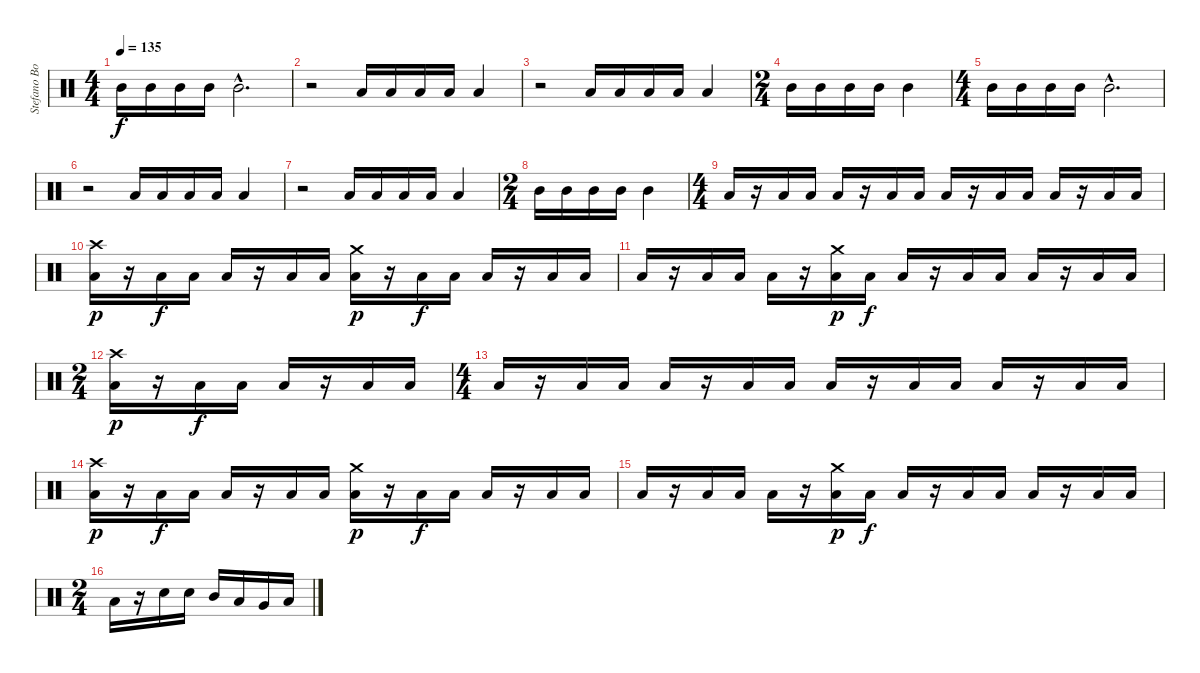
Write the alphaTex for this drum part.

\track ("Stefano Bonini" "Stefano Bo") {instrument percussion}
\staff {score}
\articulation defaults
\ts (4 4)
\tempo 135
\clef neutral
\ks c "Mid Tom (hit)".16{dy f} "Mid Tom (hit)".16 "Mid Tom (hit)".16 "Mid Tom (hit)".16 "Mid Tom (hit)"{hac}.2{d}
|
r.2 "Low Tom (hit)".16 "Low Tom (hit)".16 "Low Tom (hit)".16 "Low Tom (hit)".16 "Low Tom (hit)".4 |
r.2 "Low Tom (hit)".16 "Low Tom (hit)".16 "Low Tom (hit)".16 "Low Tom (hit)".16 "Low Tom (hit)".4 |
\ts (2 4)
"Mid Tom (hit)".16 "Mid Tom (hit)".16 "Mid Tom (hit)".16 "Mid Tom (hit)".16 "Mid Tom (hit)".4 |
\ts (4 4)
"Mid Tom (hit)".16 "Mid Tom (hit)".16 "Mid Tom (hit)".16 "Mid Tom (hit)".16 "Mid Tom (hit)"{hac}.2{d} |
r.2 "Low Tom (hit)".16 "Low Tom (hit)".16 "Low Tom (hit)".16 "Low Tom (hit)".16 "Low Tom (hit)".4 |
r.2 "Low Tom (hit)".16 "Low Tom (hit)".16 "Low Tom (hit)".16 "Low Tom (hit)".16 "Low Tom (hit)".4 |
\ts (2 4)
"Mid Tom (hit)".16 "Mid Tom (hit)".16 "Mid Tom (hit)".16 "Mid Tom (hit)".16 "Mid Tom (hit)".4 |
\ts (4 4)
"Low Tom (hit)".16 r.16 "Low Tom (hit)".16 "Low Tom (hit)".16 "Low Tom (hit)".16 r.16 "Low Tom (hit)".16 "Low Tom (hit)".16 "Low Tom (hit)".16 r.16 "Low Tom (hit)".16 "Low Tom (hit)".16 "Low Tom (hit)".16 r.16 "Low Tom (hit)".16 "Low Tom (hit)".16 |
("Crash high (hit)" "Low Tom (hit)").16{dy p} r.16 "Low Tom (hit)".16{dy f} "Low Tom (hit)".16 "Low Tom (hit)".16 r.16 "Low Tom (hit)".16 "Low Tom (hit)".16 ("Crash medium (hit)" "Low Tom (hit)").16{dy p} r.16 "Low Tom (hit)".16{dy f} "Low Tom (hit)".16 "Low Tom (hit)".16 r.16 "Low Tom (hit)".16 "Low Tom (hit)".16 |
"Low Tom (hit)".16 r.16 "Low Tom (hit)".16 "Low Tom (hit)".16 "Low Tom (hit)".16 r.16 ("Crash medium (hit)" "Low Tom (hit)").16{dy p} "Low Tom (hit)".16{dy f} "Low Tom (hit)".16 r.16 "Low Tom (hit)".16 "Low Tom (hit)".16 "Low Tom (hit)".16 r.16 "Low Tom (hit)".16 "Low Tom (hit)".16 |
\ts (2 4)
("Crash high (hit)" "Low Tom (hit)").16{dy p} r.16 "Low Tom (hit)".16{dy f} "Low Tom (hit)".16 "Low Tom (hit)".16 r.16 "Low Tom (hit)".16 "Low Tom (hit)".16 |
\ts (4 4)
"Low Tom (hit)".16 r.16 "Low Tom (hit)".16 "Low Tom (hit)".16 "Low Tom (hit)".16 r.16 "Low Tom (hit)".16 "Low Tom (hit)".16 "Low Tom (hit)".16 r.16 "Low Tom (hit)".16 "Low Tom (hit)".16 "Low Tom (hit)".16 r.16 "Low Tom (hit)".16 "Low Tom (hit)".16 |
("Crash high (hit)" "Low Tom (hit)").16{dy p} r.16 "Low Tom (hit)".16{dy f} "Low Tom (hit)".16 "Low Tom (hit)".16 r.16 "Low Tom (hit)".16 "Low Tom (hit)".16 ("Crash medium (hit)" "Low Tom (hit)").16{dy p} r.16 "Low Tom (hit)".16{dy f} "Low Tom (hit)".16 "Low Tom (hit)".16 r.16 "Low Tom (hit)".16 "Low Tom (hit)".16 |
"Low Tom (hit)".16 r.16 "Low Tom (hit)".16 "Low Tom (hit)".16 "Low Tom (hit)".16 r.16 ("Crash medium (hit)" "Low Tom (hit)").16{dy p} "Low Tom (hit)".16{dy f} "Low Tom (hit)".16 r.16 "Low Tom (hit)".16 "Low Tom (hit)".16 "Low Tom (hit)".16 r.16 "Low Tom (hit)".16 "Low Tom (hit)".16 |
\ts (2 4)
"Low Tom (hit)".16 r.16 "Electric Snare (hit)".16 "Electric Snare (hit)".16 "Mid Tom (hit)".16 "Low Tom (hit)".16 "Very Low Tom (hit)".16 "Low Tom (hit)".16
